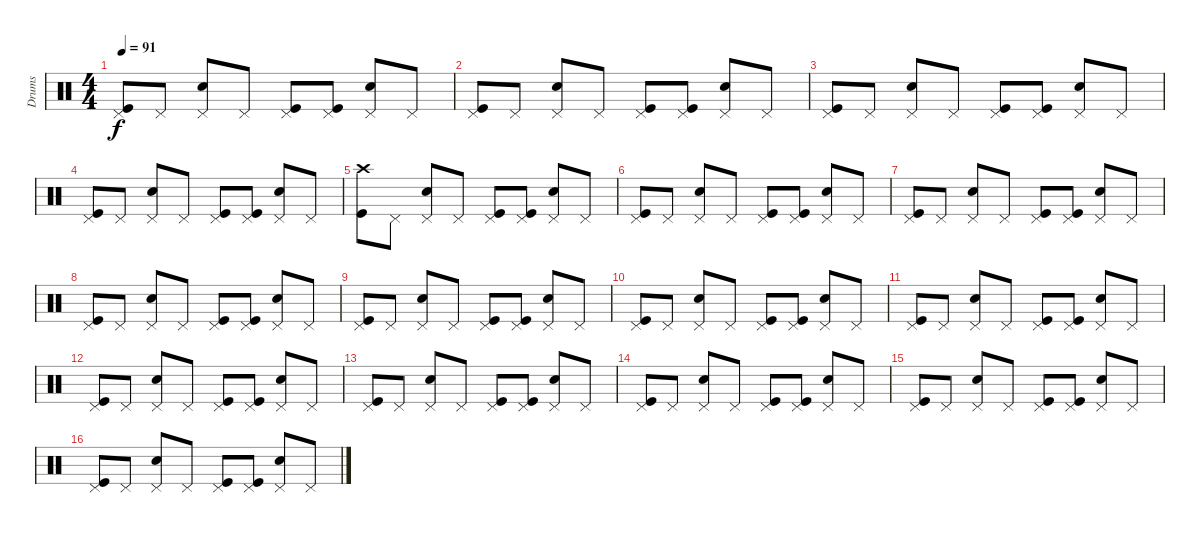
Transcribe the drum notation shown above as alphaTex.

\track ("Drums" "Drums") {instrument percussion}
\staff {score}
\articulation defaults
\ts (4 4)
\tempo 91
\clef neutral
\ks c
("Kick (hit)" "Pedal Hi-Hat (hit)").8{dy f} "Pedal Hi-Hat (hit)".8 ("Snare (hit) 2" "Pedal Hi-Hat (hit)").8 "Pedal Hi-Hat (hit)".8 ("Kick (hit)" "Pedal Hi-Hat (hit)").8 ("Kick (hit)" "Pedal Hi-Hat (hit)").8 ("Snare (hit) 2" "Pedal Hi-Hat (hit)").8 "Pedal Hi-Hat (hit)".8 |
("Kick (hit)" "Pedal Hi-Hat (hit)").8 "Pedal Hi-Hat (hit)".8 ("Snare (hit) 2" "Pedal Hi-Hat (hit)").8 "Pedal Hi-Hat (hit)".8 ("Kick (hit)" "Pedal Hi-Hat (hit)").8 ("Kick (hit)" "Pedal Hi-Hat (hit)").8 ("Snare (hit) 2" "Pedal Hi-Hat (hit)").8 "Pedal Hi-Hat (hit)".8 |
("Kick (hit)" "Pedal Hi-Hat (hit)").8 "Pedal Hi-Hat (hit)".8 ("Snare (hit) 2" "Pedal Hi-Hat (hit)").8 "Pedal Hi-Hat (hit)".8 ("Kick (hit)" "Pedal Hi-Hat (hit)").8 ("Kick (hit)" "Pedal Hi-Hat (hit)").8 ("Snare (hit) 2" "Pedal Hi-Hat (hit)").8 "Pedal Hi-Hat (hit)".8 |
("Kick (hit)" "Pedal Hi-Hat (hit)").8 "Pedal Hi-Hat (hit)".8 ("Snare (hit) 2" "Pedal Hi-Hat (hit)").8 "Pedal Hi-Hat (hit)".8 ("Kick (hit)" "Pedal Hi-Hat (hit)").8 ("Kick (hit)" "Pedal Hi-Hat (hit)").8 ("Snare (hit) 2" "Pedal Hi-Hat (hit)").8 "Pedal Hi-Hat (hit)".8 |
("Crash high (hit)" "Kick (hit)").8 "Pedal Hi-Hat (hit)".8 ("Snare (hit) 2" "Pedal Hi-Hat (hit)").8 "Pedal Hi-Hat (hit)".8 ("Kick (hit)" "Pedal Hi-Hat (hit)").8 ("Kick (hit)" "Pedal Hi-Hat (hit)").8 ("Snare (hit) 2" "Pedal Hi-Hat (hit)").8 "Pedal Hi-Hat (hit)".8 |
("Kick (hit)" "Pedal Hi-Hat (hit)").8 "Pedal Hi-Hat (hit)".8 ("Snare (hit) 2" "Pedal Hi-Hat (hit)").8 "Pedal Hi-Hat (hit)".8 ("Kick (hit)" "Pedal Hi-Hat (hit)").8 ("Kick (hit)" "Pedal Hi-Hat (hit)").8 ("Snare (hit) 2" "Pedal Hi-Hat (hit)").8 "Pedal Hi-Hat (hit)".8 |
("Kick (hit)" "Pedal Hi-Hat (hit)").8 "Pedal Hi-Hat (hit)".8 ("Snare (hit) 2" "Pedal Hi-Hat (hit)").8 "Pedal Hi-Hat (hit)".8 ("Kick (hit)" "Pedal Hi-Hat (hit)").8 ("Kick (hit)" "Pedal Hi-Hat (hit)").8 ("Snare (hit) 2" "Pedal Hi-Hat (hit)").8 "Pedal Hi-Hat (hit)".8 |
("Kick (hit)" "Pedal Hi-Hat (hit)").8 "Pedal Hi-Hat (hit)".8 ("Snare (hit) 2" "Pedal Hi-Hat (hit)").8 "Pedal Hi-Hat (hit)".8 ("Kick (hit)" "Pedal Hi-Hat (hit)").8 ("Kick (hit)" "Pedal Hi-Hat (hit)").8 ("Snare (hit) 2" "Pedal Hi-Hat (hit)").8 "Pedal Hi-Hat (hit)".8 |
("Kick (hit)" "Pedal Hi-Hat (hit)").8 "Pedal Hi-Hat (hit)".8 ("Snare (hit) 2" "Pedal Hi-Hat (hit)").8 "Pedal Hi-Hat (hit)".8 ("Kick (hit)" "Pedal Hi-Hat (hit)").8 ("Kick (hit)" "Pedal Hi-Hat (hit)").8 ("Snare (hit) 2" "Pedal Hi-Hat (hit)").8 "Pedal Hi-Hat (hit)".8 |
("Kick (hit)" "Pedal Hi-Hat (hit)").8 "Pedal Hi-Hat (hit)".8 ("Snare (hit) 2" "Pedal Hi-Hat (hit)").8 "Pedal Hi-Hat (hit)".8 ("Kick (hit)" "Pedal Hi-Hat (hit)").8 ("Kick (hit)" "Pedal Hi-Hat (hit)").8 ("Snare (hit) 2" "Pedal Hi-Hat (hit)").8 "Pedal Hi-Hat (hit)".8 |
("Kick (hit)" "Pedal Hi-Hat (hit)").8 "Pedal Hi-Hat (hit)".8 ("Snare (hit) 2" "Pedal Hi-Hat (hit)").8 "Pedal Hi-Hat (hit)".8 ("Kick (hit)" "Pedal Hi-Hat (hit)").8 ("Kick (hit)" "Pedal Hi-Hat (hit)").8 ("Snare (hit) 2" "Pedal Hi-Hat (hit)").8 "Pedal Hi-Hat (hit)".8 |
("Kick (hit)" "Pedal Hi-Hat (hit)").8 "Pedal Hi-Hat (hit)".8 ("Snare (hit) 2" "Pedal Hi-Hat (hit)").8 "Pedal Hi-Hat (hit)".8 ("Kick (hit)" "Pedal Hi-Hat (hit)").8 ("Kick (hit)" "Pedal Hi-Hat (hit)").8 ("Snare (hit) 2" "Pedal Hi-Hat (hit)").8 "Pedal Hi-Hat (hit)".8 |
("Kick (hit)" "Pedal Hi-Hat (hit)").8 "Pedal Hi-Hat (hit)".8 ("Snare (hit) 2" "Pedal Hi-Hat (hit)").8 "Pedal Hi-Hat (hit)".8 ("Kick (hit)" "Pedal Hi-Hat (hit)").8 ("Kick (hit)" "Pedal Hi-Hat (hit)").8 ("Snare (hit) 2" "Pedal Hi-Hat (hit)").8 "Pedal Hi-Hat (hit)".8 |
("Kick (hit)" "Pedal Hi-Hat (hit)").8 "Pedal Hi-Hat (hit)".8 ("Snare (hit) 2" "Pedal Hi-Hat (hit)").8 "Pedal Hi-Hat (hit)".8 ("Kick (hit)" "Pedal Hi-Hat (hit)").8 ("Kick (hit)" "Pedal Hi-Hat (hit)").8 ("Snare (hit) 2" "Pedal Hi-Hat (hit)").8 "Pedal Hi-Hat (hit)".8 |
("Kick (hit)" "Pedal Hi-Hat (hit)").8 "Pedal Hi-Hat (hit)".8 ("Snare (hit) 2" "Pedal Hi-Hat (hit)").8 "Pedal Hi-Hat (hit)".8 ("Kick (hit)" "Pedal Hi-Hat (hit)").8 ("Kick (hit)" "Pedal Hi-Hat (hit)").8 ("Snare (hit) 2" "Pedal Hi-Hat (hit)").8 "Pedal Hi-Hat (hit)".8 |
("Kick (hit)" "Pedal Hi-Hat (hit)").8 "Pedal Hi-Hat (hit)".8 ("Snare (hit) 2" "Pedal Hi-Hat (hit)").8 "Pedal Hi-Hat (hit)".8 ("Kick (hit)" "Pedal Hi-Hat (hit)").8 ("Kick (hit)" "Pedal Hi-Hat (hit)").8 ("Snare (hit) 2" "Pedal Hi-Hat (hit)").8 "Pedal Hi-Hat (hit)".8
